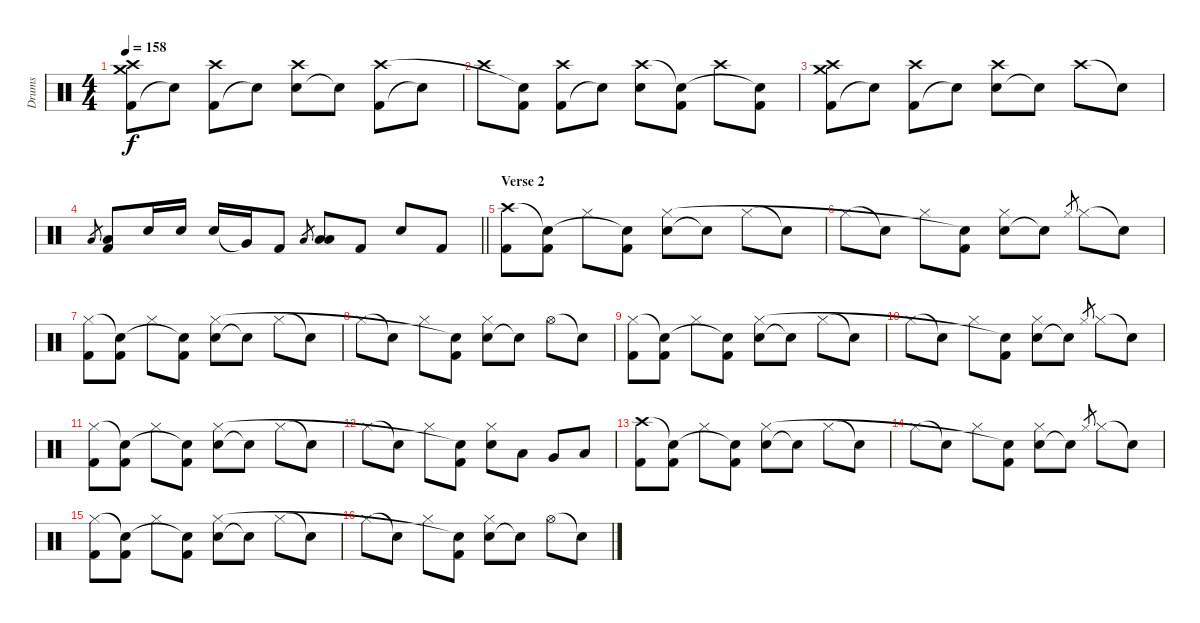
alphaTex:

\track ("Drums" "Drums") {instrument percussion}
\staff {score}
\articulation defaults
\ts (4 4)
\tempo 158
\clef neutral
\ks c
("Kick (hit) 2" "Crash medium (hit)" "Crash high (hit)").8{dy f} "Snare (hit)"{t}.8 ("Kick (hit) 2" "Crash high (hit)").8 "Snare (hit)"{t}.8 ("Electric Snare (hit)" "Crash high (hit)").8 "Snare (hit)"{t}.8 ("Kick (hit) 2" "Crash high (hit)").8 "Snare (hit)"{t}.8 |
"Crash high (hit)".8 ("Kick (hit) 2" "Snare (hit)"{t}).8 ("Kick (hit) 2" "Crash high (hit)").8 "Snare (hit)"{t}.8 ("Electric Snare (hit)" "Crash high (hit)").8 ("Kick (hit) 2" "Snare (hit)"{t}).8 "Crash high (hit)".8 ("Kick (hit) 2" "Snare (hit)"{t}).8 |
("Kick (hit) 2" "Crash medium (hit)" "Crash high (hit)").8 "Snare (hit)"{t}.8 ("Kick (hit) 2" "Crash high (hit)").8 "Snare (hit)"{t}.8 ("Electric Snare (hit)" "Crash high (hit)").8 "Snare (hit)"{t}.8 "Crash high (hit)".8 "Snare (hit)"{t}.8 |
\barLineRight lightlight "Low Tom (hit)".8{gr}
("Low Tom (hit)" "Kick (hit) 2").8 "Electric Snare (hit)".16 "Electric Snare (hit)".16 "Electric Snare (hit)".16 "Very Low Tom (hit)"{t}.16 "Kick (hit) 2".8 "Low Tom (hit)".8{gr} ("Low Tom (hit)" "Low Floor Tom (hit)").8 "Kick (hit) 2".8 "Electric Snare (hit)".8 "Kick (hit) 2".8 |
\section ("" "Verse 2")
("Kick (hit) 2" "Crash high (hit)").8 ("Kick (hit) 2" "Snare (hit)"{t}).8 "Hi-Hat (closed)".8 ("Kick (hit) 2" "Snare (hit)"{t}).8 ("Electric Snare (hit)" "Hi-Hat (closed)").8 "Snare (hit)"{t}.8 "Hi-Hat (closed)".8 "Snare (hit)"{t}.8 |
"Hi-Hat (closed)".8 "Snare (hit)"{t}.8 "Hi-Hat (closed)".8 ("Kick (hit) 2" "Snare (hit)"{t}).8 ("Electric Snare (hit)" "Hi-Hat (closed)").8 "Snare (hit)"{t}.8 "Hi-Hat (closed)".8{gr} "Hi-Hat (closed)".8 "Snare (hit)"{t}.8 |
("Kick (hit) 2" "Hi-Hat (closed)").8 ("Kick (hit) 2" "Snare (hit)"{t}).8 "Hi-Hat (closed)".8 ("Kick (hit) 2" "Snare (hit)"{t}).8 ("Electric Snare (hit)" "Hi-Hat (closed)").8 "Snare (hit)"{t}.8 "Hi-Hat (closed)".8 "Snare (hit)"{t}.8 |
"Hi-Hat (closed)".8 "Snare (hit)"{t}.8 "Hi-Hat (closed)".8 ("Kick (hit) 2" "Snare (hit)"{t}).8 ("Electric Snare (hit)" "Hi-Hat (closed)").8 "Snare (hit)"{t}.8 "Hi-Hat (open)".8 "Snare (hit)"{t}.8 |
("Kick (hit) 2" "Hi-Hat (closed)").8 ("Kick (hit) 2" "Snare (hit)"{t}).8 "Hi-Hat (closed)".8 ("Kick (hit) 2" "Snare (hit)"{t}).8 ("Electric Snare (hit)" "Hi-Hat (closed)").8 "Snare (hit)"{t}.8 "Hi-Hat (closed)".8 "Snare (hit)"{t}.8 |
"Hi-Hat (closed)".8 "Snare (hit)"{t}.8 "Hi-Hat (closed)".8 ("Kick (hit) 2" "Snare (hit)"{t}).8 ("Electric Snare (hit)" "Hi-Hat (closed)").8 "Snare (hit)"{t}.8 "Hi-Hat (closed)".8{gr} "Hi-Hat (closed)".8 "Snare (hit)"{t}.8 |
("Kick (hit) 2" "Hi-Hat (closed)").8 ("Kick (hit) 2" "Snare (hit)"{t}).8 "Hi-Hat (closed)".8 ("Kick (hit) 2" "Snare (hit)"{t}).8 ("Electric Snare (hit)" "Hi-Hat (closed)").8 "Snare (hit)"{t}.8 "Hi-Hat (closed)".8 "Snare (hit)"{t}.8 |
"Hi-Hat (closed)".8 "Snare (hit)"{t}.8 "Hi-Hat (closed)".8 ("Kick (hit) 2" "Snare (hit)"{t}).8 ("Electric Snare (hit)" "Hi-Hat (closed)").8 "Low Tom (hit)".8 "Very Low Tom (hit)".8 "Low Floor Tom (hit)".8 |
("Kick (hit) 2" "Crash high (hit)").8 ("Kick (hit) 2" "Snare (hit)"{t}).8 "Hi-Hat (closed)".8 ("Kick (hit) 2" "Snare (hit)"{t}).8 ("Electric Snare (hit)" "Hi-Hat (closed)").8 "Snare (hit)"{t}.8 "Hi-Hat (closed)".8 "Snare (hit)"{t}.8 |
"Hi-Hat (closed)".8 "Snare (hit)"{t}.8 "Hi-Hat (closed)".8 ("Kick (hit) 2" "Snare (hit)"{t}).8 ("Electric Snare (hit)" "Hi-Hat (closed)").8 "Snare (hit)"{t}.8 "Hi-Hat (closed)".8{gr} "Hi-Hat (closed)".8 "Snare (hit)"{t}.8 |
("Kick (hit) 2" "Hi-Hat (closed)").8 ("Kick (hit) 2" "Snare (hit)"{t}).8 "Hi-Hat (closed)".8 ("Kick (hit) 2" "Snare (hit)"{t}).8 ("Electric Snare (hit)" "Hi-Hat (closed)").8 "Snare (hit)"{t}.8 "Hi-Hat (closed)".8 "Snare (hit)"{t}.8 |
"Hi-Hat (closed)".8 "Snare (hit)"{t}.8 "Hi-Hat (closed)".8 ("Kick (hit) 2" "Snare (hit)"{t}).8 ("Electric Snare (hit)" "Hi-Hat (closed)").8 "Snare (hit)"{t}.8 "Hi-Hat (open)".8 "Snare (hit)"{t}.8
